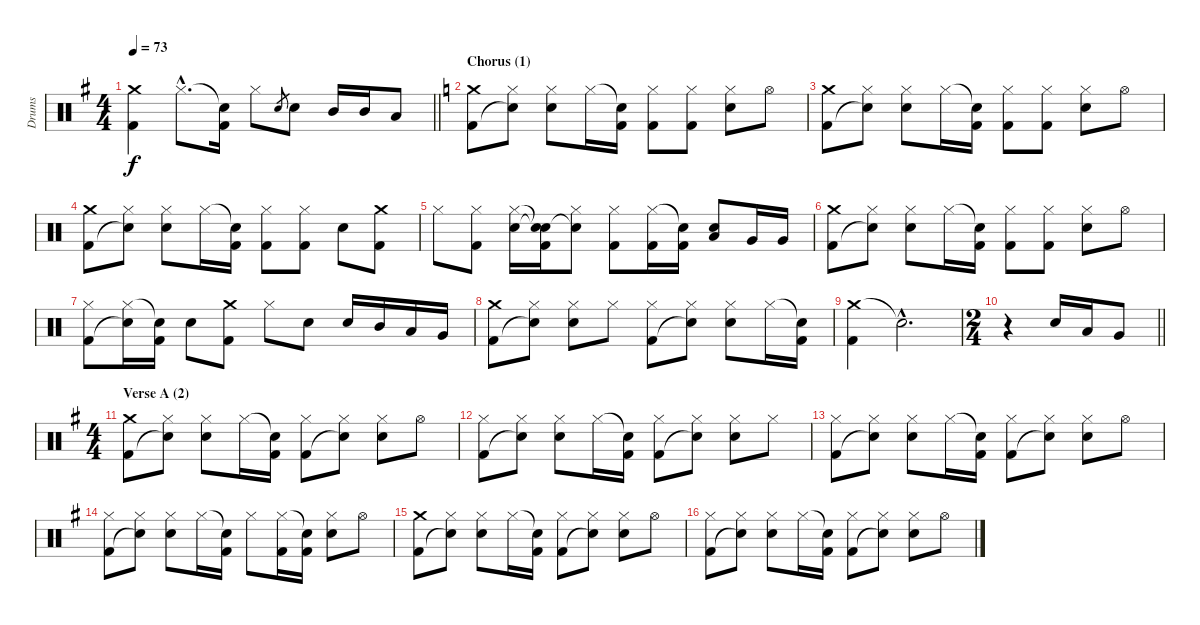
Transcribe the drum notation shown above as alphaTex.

\track ("Drums" "Drums") {instrument percussion}
\staff {score}
\articulation defaults
\ts (4 4)
\tempo 73
\clef neutral
\barLineRight lightlight
\ks g
("Crash medium (hit)" "Kick (hit) 2").4{dy f} "Hi-Hat (closed)"{hac}.8{d} ("Snare (hit)"{t} "Kick (hit) 2").16 "Hi-Hat (closed)".8 "Electric Snare (hit)".8{gr} "Electric Snare (hit)".8 "Mid Tom (hit)".16 "Mid Tom (hit)".16 "Low Tom (hit)".8 |
\section ("" "Chorus (1)")
\ks c
("Crash medium (hit)" "Kick (hit) 2").8 ("Hi-Hat (closed)" "Snare (hit)"{t}).8 ("Hi-Hat (closed)" "Electric Snare (hit)").8 "Hi-Hat (closed)".16 ("Snare (hit)"{t} "Kick (hit) 2").16 ("Hi-Hat (closed)" "Kick (hit) 2").8 ("Hi-Hat (closed)" "Kick (hit) 2").8 ("Hi-Hat (closed)" "Electric Snare (hit)").8 "Hi-Hat (open)".8 |
("Crash medium (hit)" "Kick (hit) 2").8 ("Hi-Hat (closed)" "Snare (hit)"{t}).8 ("Hi-Hat (closed)" "Electric Snare (hit)").8 "Hi-Hat (closed)".16 ("Snare (hit)"{t} "Kick (hit) 2").16 ("Hi-Hat (closed)" "Kick (hit) 2").8 ("Hi-Hat (closed)" "Kick (hit) 2").8 ("Hi-Hat (closed)" "Electric Snare (hit)").8 "Hi-Hat (open)".8 |
("Crash medium (hit)" "Kick (hit) 2").8 ("Hi-Hat (closed)" "Snare (hit)"{t}).8 ("Hi-Hat (closed)" "Electric Snare (hit)").8 "Hi-Hat (closed)".16 ("Snare (hit)"{t} "Kick (hit) 2").16 ("Hi-Hat (closed)" "Kick (hit) 2").8 ("Hi-Hat (closed)" "Kick (hit) 2").8 "Electric Snare (hit)".8 ("Crash medium (hit)" "Kick (hit) 2").8 |
"Hi-Hat (closed)".8 ("Hi-Hat (closed)" "Kick (hit) 2").8 ("Hi-Hat (closed)" "Electric Snare (hit)").16 ("Snare (hit)"{t} "Snare (hit)"{t} "Kick (hit) 2").16 ("Hi-Hat (closed)" "Snare (hit)"{t}).8 ("Hi-Hat (closed)" "Kick (hit) 2").8 ("Hi-Hat (closed)" "Kick (hit) 2").16 ("Snare (hit)"{t} "Kick (hit) 2").16 ("Electric Snare (hit)" "Low Tom (hit)").8 "Very Low Tom (hit)".16 "Very Low Tom (hit)".16 |
("Crash medium (hit)" "Kick (hit) 2").8 ("Hi-Hat (closed)" "Snare (hit)"{t}).8 ("Hi-Hat (closed)" "Electric Snare (hit)").8 "Hi-Hat (closed)".16 ("Snare (hit)"{t} "Kick (hit) 2").16 ("Hi-Hat (closed)" "Kick (hit) 2").8 ("Hi-Hat (closed)" "Kick (hit) 2").8 ("Hi-Hat (closed)" "Electric Snare (hit)").8 "Hi-Hat (open)".8 |
("Hi-Hat (closed)" "Kick (hit) 2").8 ("Hi-Hat (closed)" "Snare (hit)"{t}).16 ("Snare (hit)"{t} "Kick (hit) 2").16 "Electric Snare (hit)".8 ("Crash medium (hit)" "Kick (hit) 2").8 "Hi-Hat (closed)".8 "Electric Snare (hit)".8 "Electric Snare (hit)".16 "Mid Tom (hit)".16 "Low Tom (hit)".16 "Very Low Tom (hit)".16 |
("Crash medium (hit)" "Kick (hit) 2").8 ("Hi-Hat (closed)" "Snare (hit)"{t}).8 ("Hi-Hat (closed)" "Electric Snare (hit)").8 "Hi-Hat (closed)".8 ("Hi-Hat (closed)" "Kick (hit) 2").8 ("Hi-Hat (closed)" "Snare (hit)"{t}).8 ("Hi-Hat (closed)" "Electric Snare (hit)").8 "Hi-Hat (closed)".16 ("Snare (hit)"{t} "Kick (hit) 2").16 |
("Crash medium (hit)" "Kick (hit) 2").4 "Snare (hit)"{hac t}.2{d} |
\ts (2 4)
\barLineRight lightlight
r.4 "Electric Snare (hit)".16 "Low Tom (hit)".16 "Very Low Tom (hit)".8 |
\ts (4 4)
\section ("" "Verse A (2)")
\ks g
("Crash medium (hit)" "Kick (hit) 2").8 ("Hi-Hat (closed)" "Snare (hit)"{t}).8 ("Hi-Hat (closed)" "Electric Snare (hit)").8 "Hi-Hat (closed)".16 ("Snare (hit)"{t} "Kick (hit) 2").16 ("Hi-Hat (closed)" "Kick (hit) 2").8 ("Hi-Hat (closed)" "Snare (hit)"{t}).8 ("Hi-Hat (closed)" "Electric Snare (hit)").8 "Hi-Hat (open)".8 |
("Hi-Hat (closed)" "Kick (hit) 2").8 ("Hi-Hat (closed)" "Snare (hit)"{t}).8 ("Hi-Hat (closed)" "Electric Snare (hit)").8 "Hi-Hat (closed)".16 ("Snare (hit)"{t} "Kick (hit) 2").16 ("Hi-Hat (closed)" "Kick (hit) 2").8 ("Hi-Hat (closed)" "Snare (hit)"{t}).8 ("Hi-Hat (closed)" "Electric Snare (hit)").8 "Hi-Hat (closed)".8 |
("Hi-Hat (closed)" "Kick (hit) 2").8 ("Hi-Hat (closed)" "Snare (hit)"{t}).8 ("Hi-Hat (closed)" "Electric Snare (hit)").8 "Hi-Hat (closed)".16 ("Snare (hit)"{t} "Kick (hit) 2").16 ("Hi-Hat (closed)" "Kick (hit) 2").8 ("Hi-Hat (closed)" "Snare (hit)"{t}).8 ("Hi-Hat (closed)" "Electric Snare (hit)").8 "Hi-Hat (open)".8 |
("Hi-Hat (closed)" "Kick (hit) 2").8 ("Hi-Hat (closed)" "Snare (hit)"{t}).8 ("Hi-Hat (closed)" "Electric Snare (hit)").8 "Hi-Hat (closed)".16 ("Snare (hit)"{t} "Kick (hit) 2").16 "Hi-Hat (closed)".8 ("Hi-Hat (closed)" "Kick (hit) 2").16 ("Snare (hit)"{t} "Kick (hit) 2").16 ("Hi-Hat (closed)" "Electric Snare (hit)").8 "Hi-Hat (open)".8 |
("Crash medium (hit)" "Kick (hit) 2").8 ("Hi-Hat (closed)" "Snare (hit)"{t}).8 ("Hi-Hat (closed)" "Electric Snare (hit)").8 "Hi-Hat (closed)".16 ("Snare (hit)"{t} "Kick (hit) 2").16 ("Hi-Hat (closed)" "Kick (hit) 2").8 ("Hi-Hat (closed)" "Snare (hit)"{t}).8 ("Hi-Hat (closed)" "Electric Snare (hit)").8 "Hi-Hat (open)".8 |
("Hi-Hat (closed)" "Kick (hit) 2").8 ("Hi-Hat (closed)" "Snare (hit)"{t}).8 ("Hi-Hat (closed)" "Electric Snare (hit)").8 "Hi-Hat (closed)".16 ("Snare (hit)"{t} "Kick (hit) 2").16 ("Hi-Hat (closed)" "Kick (hit) 2").8 ("Hi-Hat (closed)" "Snare (hit)"{t}).8 ("Hi-Hat (closed)" "Electric Snare (hit)").8 "Hi-Hat (open)".8
